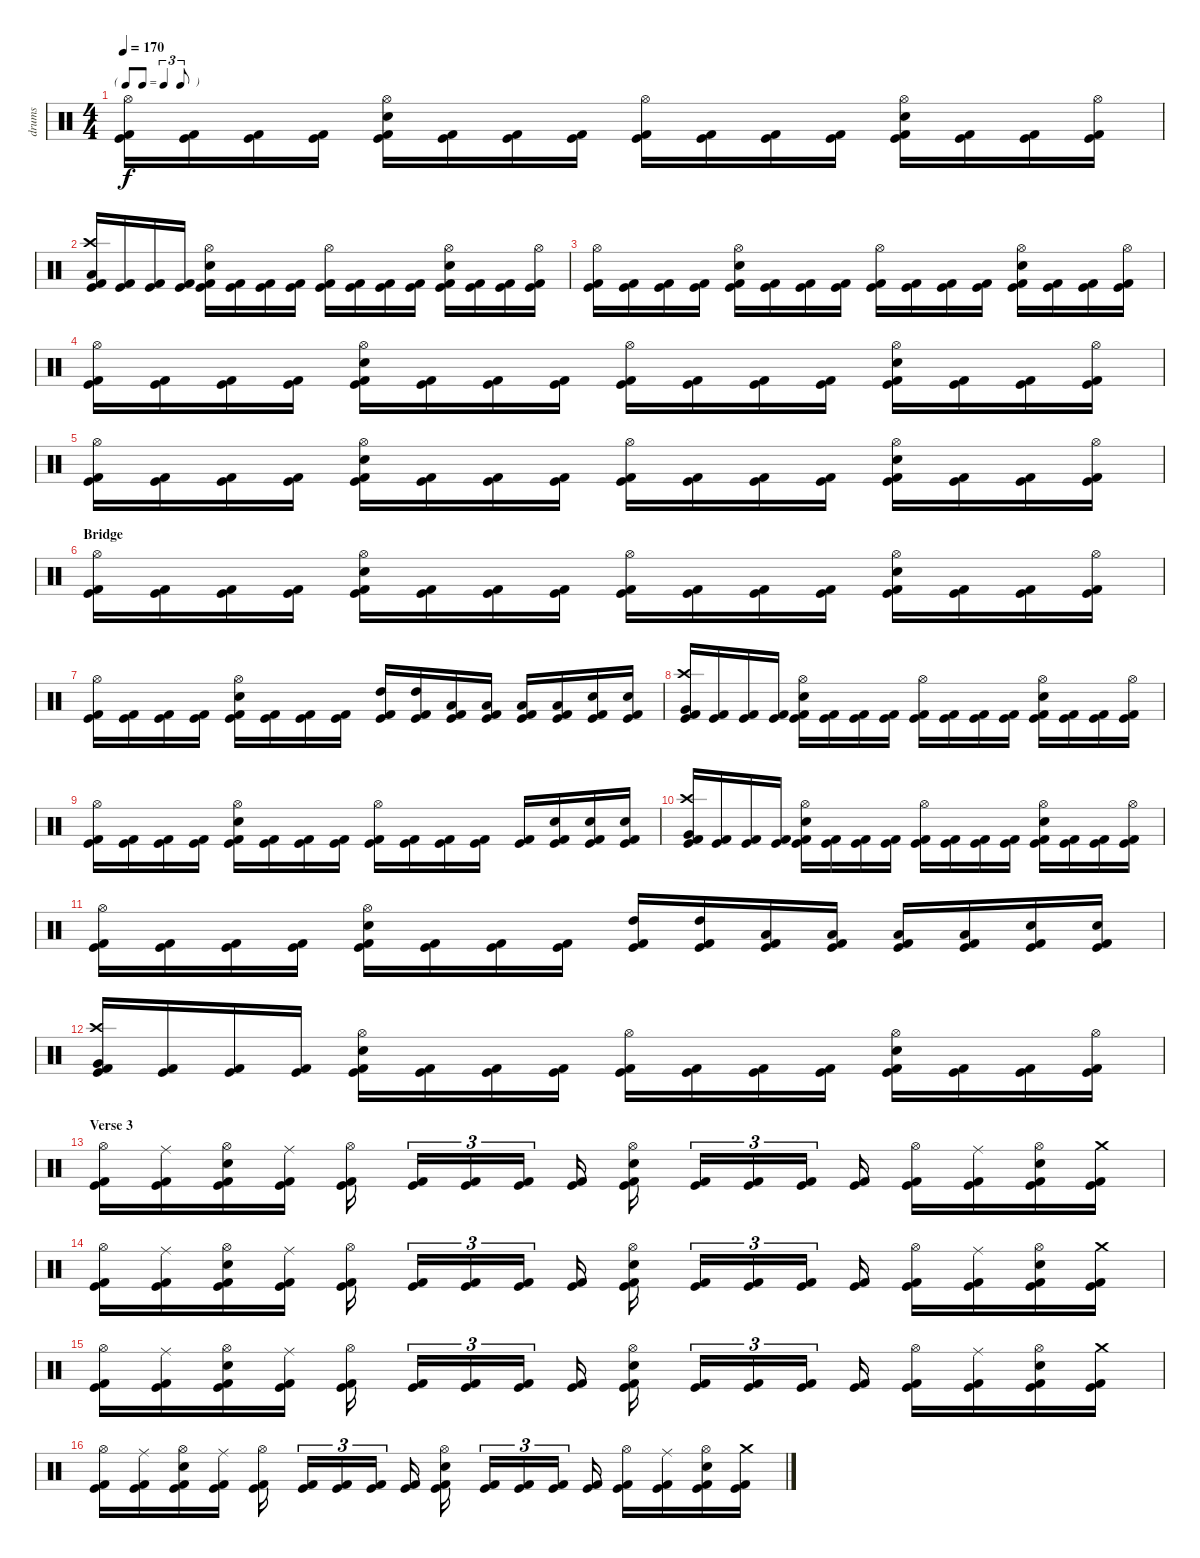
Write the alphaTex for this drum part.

\track ("drums" "drums") {instrument percussion}
\staff {score}
\articulation defaults
\ts (4 4)
\tf triplet8th
\tempo 170
\clef neutral
\ks c
("Hi-Hat (open)" "Kick (hit)" "Kick (hit) 2").16{dy f} ("Kick (hit)" "Kick (hit) 2").16 ("Kick (hit)" "Kick (hit) 2").16 ("Kick (hit)" "Kick (hit) 2").16 ("Hi-Hat (open)" "Snare (hit) 2" "Kick (hit)" "Kick (hit) 2").16 ("Kick (hit)" "Kick (hit) 2").16 ("Kick (hit)" "Kick (hit) 2").16 ("Kick (hit)" "Kick (hit) 2").16 ("Hi-Hat (open)" "Kick (hit)" "Kick (hit) 2").16 ("Kick (hit)" "Kick (hit) 2").16 ("Kick (hit)" "Kick (hit) 2").16 ("Kick (hit)" "Kick (hit) 2").16 ("Hi-Hat (open)" "Snare (hit) 2" "Kick (hit)" "Kick (hit) 2").16 ("Kick (hit)" "Kick (hit) 2").16 ("Kick (hit)" "Kick (hit) 2").16 ("Hi-Hat (open)" "Kick (hit)" "Kick (hit) 2").16 |
("Crash high (hit)" "Low Floor Tom (hit)" "Kick (hit)" "Kick (hit) 2").16 ("Kick (hit)" "Kick (hit) 2").16 ("Kick (hit)" "Kick (hit) 2").16 ("Kick (hit)" "Kick (hit) 2").16 ("Hi-Hat (open)" "Snare (hit) 2" "Kick (hit)" "Kick (hit) 2").16 ("Kick (hit)" "Kick (hit) 2").16 ("Kick (hit)" "Kick (hit) 2").16 ("Kick (hit)" "Kick (hit) 2").16 ("Hi-Hat (open)" "Kick (hit)" "Kick (hit) 2").16 ("Kick (hit)" "Kick (hit) 2").16 ("Kick (hit)" "Kick (hit) 2").16 ("Kick (hit)" "Kick (hit) 2").16 ("Hi-Hat (open)" "Snare (hit) 2" "Kick (hit)" "Kick (hit) 2").16 ("Kick (hit)" "Kick (hit) 2").16 ("Kick (hit)" "Kick (hit) 2").16 ("Hi-Hat (open)" "Kick (hit)" "Kick (hit) 2").16 |
("Hi-Hat (open)" "Kick (hit)" "Kick (hit) 2").16 ("Kick (hit)" "Kick (hit) 2").16 ("Kick (hit)" "Kick (hit) 2").16 ("Kick (hit)" "Kick (hit) 2").16 ("Hi-Hat (open)" "Snare (hit) 2" "Kick (hit)" "Kick (hit) 2").16 ("Kick (hit)" "Kick (hit) 2").16 ("Kick (hit)" "Kick (hit) 2").16 ("Kick (hit)" "Kick (hit) 2").16 ("Hi-Hat (open)" "Kick (hit)" "Kick (hit) 2").16 ("Kick (hit)" "Kick (hit) 2").16 ("Kick (hit)" "Kick (hit) 2").16 ("Kick (hit)" "Kick (hit) 2").16 ("Hi-Hat (open)" "Snare (hit) 2" "Kick (hit)" "Kick (hit) 2").16 ("Kick (hit)" "Kick (hit) 2").16 ("Kick (hit)" "Kick (hit) 2").16 ("Hi-Hat (open)" "Kick (hit)" "Kick (hit) 2").16 |
("Hi-Hat (open)" "Kick (hit)" "Kick (hit) 2").16 ("Kick (hit)" "Kick (hit) 2").16 ("Kick (hit)" "Kick (hit) 2").16 ("Kick (hit)" "Kick (hit) 2").16 ("Hi-Hat (open)" "Snare (hit) 2" "Kick (hit)" "Kick (hit) 2").16 ("Kick (hit)" "Kick (hit) 2").16 ("Kick (hit)" "Kick (hit) 2").16 ("Kick (hit)" "Kick (hit) 2").16 ("Hi-Hat (open)" "Kick (hit)" "Kick (hit) 2").16 ("Kick (hit)" "Kick (hit) 2").16 ("Kick (hit)" "Kick (hit) 2").16 ("Kick (hit)" "Kick (hit) 2").16 ("Hi-Hat (open)" "Snare (hit) 2" "Kick (hit)" "Kick (hit) 2").16 ("Kick (hit)" "Kick (hit) 2").16 ("Kick (hit)" "Kick (hit) 2").16 ("Hi-Hat (open)" "Kick (hit)" "Kick (hit) 2").16 |
("Hi-Hat (open)" "Kick (hit)" "Kick (hit) 2").16 ("Kick (hit)" "Kick (hit) 2").16 ("Kick (hit)" "Kick (hit) 2").16 ("Kick (hit)" "Kick (hit) 2").16 ("Hi-Hat (open)" "Snare (hit) 2" "Kick (hit)" "Kick (hit) 2").16 ("Kick (hit)" "Kick (hit) 2").16 ("Kick (hit)" "Kick (hit) 2").16 ("Kick (hit)" "Kick (hit) 2").16 ("Hi-Hat (open)" "Kick (hit)" "Kick (hit) 2").16 ("Kick (hit)" "Kick (hit) 2").16 ("Kick (hit)" "Kick (hit) 2").16 ("Kick (hit)" "Kick (hit) 2").16 ("Hi-Hat (open)" "Snare (hit) 2" "Kick (hit)" "Kick (hit) 2").16 ("Kick (hit)" "Kick (hit) 2").16 ("Kick (hit)" "Kick (hit) 2").16 ("Hi-Hat (open)" "Kick (hit)" "Kick (hit) 2").16 |
\section ("" "Bridge")
("Hi-Hat (open)" "Kick (hit)" "Kick (hit) 2").16 ("Kick (hit)" "Kick (hit) 2").16 ("Kick (hit)" "Kick (hit) 2").16 ("Kick (hit)" "Kick (hit) 2").16 ("Hi-Hat (open)" "Snare (hit) 2" "Kick (hit)" "Kick (hit) 2").16 ("Kick (hit)" "Kick (hit) 2").16 ("Kick (hit)" "Kick (hit) 2").16 ("Kick (hit)" "Kick (hit) 2").16 ("Hi-Hat (open)" "Kick (hit)" "Kick (hit) 2").16 ("Kick (hit)" "Kick (hit) 2").16 ("Kick (hit)" "Kick (hit) 2").16 ("Kick (hit)" "Kick (hit) 2").16 ("Hi-Hat (open)" "Snare (hit) 2" "Kick (hit)" "Kick (hit) 2").16 ("Kick (hit)" "Kick (hit) 2").16 ("Kick (hit)" "Kick (hit) 2").16 ("Hi-Hat (open)" "Kick (hit)" "Kick (hit) 2").16 |
("Hi-Hat (open)" "Kick (hit)" "Kick (hit) 2").16 ("Kick (hit)" "Kick (hit) 2").16 ("Kick (hit)" "Kick (hit) 2").16 ("Kick (hit)" "Kick (hit) 2").16 ("Hi-Hat (open)" "Snare (hit) 2" "Kick (hit)" "Kick (hit) 2").16 ("Kick (hit)" "Kick (hit) 2").16 ("Kick (hit)" "Kick (hit) 2").16 ("Kick (hit)" "Kick (hit) 2").16 ("High Tom (hit)" "Kick (hit)" "Kick (hit) 2").16 ("High Tom (hit)" "Kick (hit)" "Kick (hit) 2").16 ("Low Floor Tom (hit)" "Kick (hit)" "Kick (hit) 2").16 ("Low Floor Tom (hit)" "Kick (hit)" "Kick (hit) 2").16 ("Low Tom (hit)" "Kick (hit)" "Kick (hit) 2").16 ("Low Tom (hit)" "Kick (hit)" "Kick (hit) 2").16 ("Snare (hit) 2" "Kick (hit)" "Kick (hit) 2").16 ("Snare (hit) 2" "Kick (hit)" "Kick (hit) 2").16 |
("Crash high (hit)" "Very Low Tom (hit)" "Kick (hit)" "Kick (hit) 2").16 ("Kick (hit)" "Kick (hit) 2").16 ("Kick (hit)" "Kick (hit) 2").16 ("Kick (hit)" "Kick (hit) 2").16 ("Hi-Hat (open)" "Snare (hit) 2" "Kick (hit)" "Kick (hit) 2").16 ("Kick (hit)" "Kick (hit) 2").16 ("Kick (hit)" "Kick (hit) 2").16 ("Kick (hit)" "Kick (hit) 2").16 ("Hi-Hat (open)" "Kick (hit)" "Kick (hit) 2").16 ("Kick (hit)" "Kick (hit) 2").16 ("Kick (hit)" "Kick (hit) 2").16 ("Kick (hit)" "Kick (hit) 2").16 ("Hi-Hat (open)" "Snare (hit) 2" "Kick (hit)" "Kick (hit) 2").16 ("Kick (hit)" "Kick (hit) 2").16 ("Kick (hit)" "Kick (hit) 2").16 ("Hi-Hat (open)" "Kick (hit)" "Kick (hit) 2").16 |
("Hi-Hat (open)" "Kick (hit)" "Kick (hit) 2").16 ("Kick (hit)" "Kick (hit) 2").16 ("Kick (hit)" "Kick (hit) 2").16 ("Kick (hit)" "Kick (hit) 2").16 ("Hi-Hat (open)" "Snare (hit) 2" "Kick (hit)" "Kick (hit) 2").16 ("Kick (hit)" "Kick (hit) 2").16 ("Kick (hit)" "Kick (hit) 2").16 ("Kick (hit)" "Kick (hit) 2").16 ("Hi-Hat (open)" "Kick (hit)" "Kick (hit) 2").16 ("Kick (hit)" "Kick (hit) 2").16 ("Kick (hit)" "Kick (hit) 2").16 ("Kick (hit)" "Kick (hit) 2").16 ("Kick (hit)" "Kick (hit) 2").16 ("Snare (hit) 2" "Kick (hit)" "Kick (hit) 2").16 ("Snare (hit) 2" "Kick (hit)" "Kick (hit) 2").16 ("Snare (hit) 2" "Kick (hit)" "Kick (hit) 2").16 |
("Crash high (hit)" "Very Low Tom (hit)" "Kick (hit)" "Kick (hit) 2").16 ("Kick (hit)" "Kick (hit) 2").16 ("Kick (hit)" "Kick (hit) 2").16 ("Kick (hit)" "Kick (hit) 2").16 ("Hi-Hat (open)" "Snare (hit) 2" "Kick (hit)" "Kick (hit) 2").16 ("Kick (hit)" "Kick (hit) 2").16 ("Kick (hit)" "Kick (hit) 2").16 ("Kick (hit)" "Kick (hit) 2").16 ("Hi-Hat (open)" "Kick (hit)" "Kick (hit) 2").16 ("Kick (hit)" "Kick (hit) 2").16 ("Kick (hit)" "Kick (hit) 2").16 ("Kick (hit)" "Kick (hit) 2").16 ("Hi-Hat (open)" "Snare (hit) 2" "Kick (hit)" "Kick (hit) 2").16 ("Kick (hit)" "Kick (hit) 2").16 ("Kick (hit)" "Kick (hit) 2").16 ("Hi-Hat (open)" "Kick (hit)" "Kick (hit) 2").16 |
("Hi-Hat (open)" "Kick (hit)" "Kick (hit) 2").16 ("Kick (hit)" "Kick (hit) 2").16 ("Kick (hit)" "Kick (hit) 2").16 ("Kick (hit)" "Kick (hit) 2").16 ("Hi-Hat (open)" "Snare (hit) 2" "Kick (hit)" "Kick (hit) 2").16 ("Kick (hit)" "Kick (hit) 2").16 ("Kick (hit)" "Kick (hit) 2").16 ("Kick (hit)" "Kick (hit) 2").16 ("High Tom (hit)" "Kick (hit)" "Kick (hit) 2").16 ("High Tom (hit)" "Kick (hit)" "Kick (hit) 2").16 ("Low Floor Tom (hit)" "Kick (hit)" "Kick (hit) 2").16 ("Low Floor Tom (hit)" "Kick (hit)" "Kick (hit) 2").16 ("Low Tom (hit)" "Kick (hit)" "Kick (hit) 2").16 ("Low Tom (hit)" "Kick (hit)" "Kick (hit) 2").16 ("Snare (hit) 2" "Kick (hit)" "Kick (hit) 2").16 ("Snare (hit) 2" "Kick (hit)" "Kick (hit) 2").16 |
("Crash high (hit)" "Very Low Tom (hit)" "Kick (hit)" "Kick (hit) 2").16 ("Kick (hit)" "Kick (hit) 2").16 ("Kick (hit)" "Kick (hit) 2").16 ("Kick (hit)" "Kick (hit) 2").16 ("Hi-Hat (open)" "Snare (hit) 2" "Kick (hit)" "Kick (hit) 2").16 ("Kick (hit)" "Kick (hit) 2").16 ("Kick (hit)" "Kick (hit) 2").16 ("Kick (hit)" "Kick (hit) 2").16 ("Hi-Hat (open)" "Kick (hit)" "Kick (hit) 2").16 ("Kick (hit)" "Kick (hit) 2").16 ("Kick (hit)" "Kick (hit) 2").16 ("Kick (hit)" "Kick (hit) 2").16 ("Hi-Hat (open)" "Snare (hit) 2" "Kick (hit)" "Kick (hit) 2").16 ("Kick (hit)" "Kick (hit) 2").16 ("Kick (hit)" "Kick (hit) 2").16 ("Hi-Hat (open)" "Kick (hit)" "Kick (hit) 2").16 |
\section ("" "Verse 3")
("Hi-Hat (open)" "Kick (hit)" "Kick (hit) 2").16 ("Ride (middle)" "Kick (hit)" "Kick (hit) 2").16 ("Hi-Hat (open)" "Snare (hit) 2" "Kick (hit)" "Kick (hit) 2").16 ("Ride (middle)" "Kick (hit)" "Kick (hit) 2").16 ("Hi-Hat (open)" "Kick (hit)" "Kick (hit) 2").16 ("Kick (hit)" "Kick (hit) 2").16{tu (3 2)} ("Kick (hit)" "Kick (hit) 2").16{tu (3 2)} ("Kick (hit)" "Kick (hit) 2").16{tu (3 2)} ("Kick (hit)" "Kick (hit) 2").16 ("Hi-Hat (open)" "Snare (hit) 2" "Kick (hit)" "Kick (hit) 2").16 ("Kick (hit)" "Kick (hit) 2").16{tu (3 2)} ("Kick (hit)" "Kick (hit) 2").16{tu (3 2)} ("Kick (hit)" "Kick (hit) 2").16{tu (3 2)} ("Kick (hit)" "Kick (hit) 2").16 ("Hi-Hat (open)" "Kick (hit)" "Kick (hit) 2").16 ("Ride (middle)" "Kick (hit)" "Kick (hit) 2").16 ("Hi-Hat (open)" "Snare (hit) 2" "Kick (hit)" "Kick (hit) 2").16 ("Crash medium (hit)" "Kick (hit)" "Kick (hit) 2").16 |
("Hi-Hat (open)" "Kick (hit)" "Kick (hit) 2").16 ("Ride (middle)" "Kick (hit)" "Kick (hit) 2").16 ("Hi-Hat (open)" "Snare (hit) 2" "Kick (hit)" "Kick (hit) 2").16 ("Ride (middle)" "Kick (hit)" "Kick (hit) 2").16 ("Hi-Hat (open)" "Kick (hit)" "Kick (hit) 2").16 ("Kick (hit)" "Kick (hit) 2").16{tu (3 2)} ("Kick (hit)" "Kick (hit) 2").16{tu (3 2)} ("Kick (hit)" "Kick (hit) 2").16{tu (3 2)} ("Kick (hit)" "Kick (hit) 2").16 ("Hi-Hat (open)" "Snare (hit) 2" "Kick (hit)" "Kick (hit) 2").16 ("Kick (hit)" "Kick (hit) 2").16{tu (3 2)} ("Kick (hit)" "Kick (hit) 2").16{tu (3 2)} ("Kick (hit)" "Kick (hit) 2").16{tu (3 2)} ("Kick (hit)" "Kick (hit) 2").16 ("Hi-Hat (open)" "Kick (hit)" "Kick (hit) 2").16 ("Ride (middle)" "Kick (hit)" "Kick (hit) 2").16 ("Hi-Hat (open)" "Snare (hit) 2" "Kick (hit)" "Kick (hit) 2").16 ("Crash medium (hit)" "Kick (hit)" "Kick (hit) 2").16 |
("Hi-Hat (open)" "Kick (hit)" "Kick (hit) 2").16 ("Ride (middle)" "Kick (hit)" "Kick (hit) 2").16 ("Hi-Hat (open)" "Snare (hit) 2" "Kick (hit)" "Kick (hit) 2").16 ("Ride (middle)" "Kick (hit)" "Kick (hit) 2").16 ("Hi-Hat (open)" "Kick (hit)" "Kick (hit) 2").16 ("Kick (hit)" "Kick (hit) 2").16{tu (3 2)} ("Kick (hit)" "Kick (hit) 2").16{tu (3 2)} ("Kick (hit)" "Kick (hit) 2").16{tu (3 2)} ("Kick (hit)" "Kick (hit) 2").16 ("Hi-Hat (open)" "Snare (hit) 2" "Kick (hit)" "Kick (hit) 2").16 ("Kick (hit)" "Kick (hit) 2").16{tu (3 2)} ("Kick (hit)" "Kick (hit) 2").16{tu (3 2)} ("Kick (hit)" "Kick (hit) 2").16{tu (3 2)} ("Kick (hit)" "Kick (hit) 2").16 ("Hi-Hat (open)" "Kick (hit)" "Kick (hit) 2").16 ("Ride (middle)" "Kick (hit)" "Kick (hit) 2").16 ("Hi-Hat (open)" "Snare (hit) 2" "Kick (hit)" "Kick (hit) 2").16 ("Crash medium (hit)" "Kick (hit)" "Kick (hit) 2").16 |
("Hi-Hat (open)" "Kick (hit)" "Kick (hit) 2").16 ("Ride (middle)" "Kick (hit)" "Kick (hit) 2").16 ("Hi-Hat (open)" "Snare (hit) 2" "Kick (hit)" "Kick (hit) 2").16 ("Ride (middle)" "Kick (hit)" "Kick (hit) 2").16 ("Hi-Hat (open)" "Kick (hit)" "Kick (hit) 2").16 ("Kick (hit)" "Kick (hit) 2").16{tu (3 2)} ("Kick (hit)" "Kick (hit) 2").16{tu (3 2)} ("Kick (hit)" "Kick (hit) 2").16{tu (3 2)} ("Kick (hit)" "Kick (hit) 2").16 ("Hi-Hat (open)" "Snare (hit) 2" "Kick (hit)" "Kick (hit) 2").16 ("Kick (hit)" "Kick (hit) 2").16{tu (3 2)} ("Kick (hit)" "Kick (hit) 2").16{tu (3 2)} ("Kick (hit)" "Kick (hit) 2").16{tu (3 2)} ("Kick (hit)" "Kick (hit) 2").16 ("Hi-Hat (open)" "Kick (hit)" "Kick (hit) 2").16 ("Ride (middle)" "Kick (hit)" "Kick (hit) 2").16 ("Hi-Hat (open)" "Snare (hit) 2" "Kick (hit)" "Kick (hit) 2").16 ("Crash medium (hit)" "Kick (hit)" "Kick (hit) 2").16
